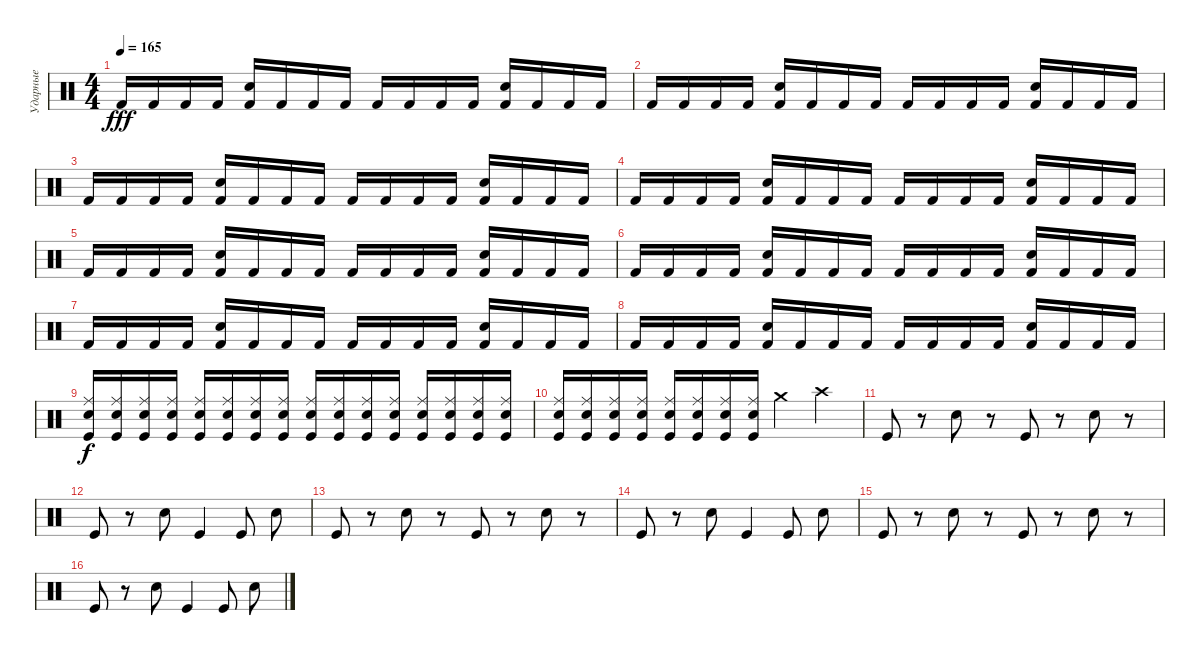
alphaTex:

\track ("Ударные" "Ударные") {instrument percussion}
\staff {score}
\articulation defaults
\ts (4 4)
\tempo 165
\clef neutral
\ks c "Kick (hit) 2".16{dy fff} "Kick (hit) 2".16 "Kick (hit) 2".16 "Kick (hit) 2".16
("Electric Snare (hit)" "Kick (hit) 2").16 "Kick (hit) 2".16 "Kick (hit) 2".16 "Kick (hit) 2".16 "Kick (hit) 2".16 "Kick (hit) 2".16 "Kick (hit) 2".16 "Kick (hit) 2".16 ("Electric Snare (hit)" "Kick (hit) 2").16 "Kick (hit) 2".16 "Kick (hit) 2".16 "Kick (hit) 2".16 |
"Kick (hit) 2".16 "Kick (hit) 2".16 "Kick (hit) 2".16 "Kick (hit) 2".16 ("Electric Snare (hit)" "Kick (hit) 2").16 "Kick (hit) 2".16 "Kick (hit) 2".16 "Kick (hit) 2".16 "Kick (hit) 2".16 "Kick (hit) 2".16 "Kick (hit) 2".16 "Kick (hit) 2".16 ("Electric Snare (hit)" "Kick (hit) 2").16 "Kick (hit) 2".16 "Kick (hit) 2".16 "Kick (hit) 2".16 |
"Kick (hit) 2".16 "Kick (hit) 2".16 "Kick (hit) 2".16 "Kick (hit) 2".16 ("Electric Snare (hit)" "Kick (hit) 2").16 "Kick (hit) 2".16 "Kick (hit) 2".16 "Kick (hit) 2".16 "Kick (hit) 2".16 "Kick (hit) 2".16 "Kick (hit) 2".16 "Kick (hit) 2".16 ("Electric Snare (hit)" "Kick (hit) 2").16 "Kick (hit) 2".16 "Kick (hit) 2".16 "Kick (hit) 2".16 |
"Kick (hit) 2".16 "Kick (hit) 2".16 "Kick (hit) 2".16 "Kick (hit) 2".16 ("Electric Snare (hit)" "Kick (hit) 2").16 "Kick (hit) 2".16 "Kick (hit) 2".16 "Kick (hit) 2".16 "Kick (hit) 2".16 "Kick (hit) 2".16 "Kick (hit) 2".16 "Kick (hit) 2".16 ("Electric Snare (hit)" "Kick (hit) 2").16 "Kick (hit) 2".16 "Kick (hit) 2".16 "Kick (hit) 2".16 |
"Kick (hit) 2".16 "Kick (hit) 2".16 "Kick (hit) 2".16 "Kick (hit) 2".16 ("Electric Snare (hit)" "Kick (hit) 2").16 "Kick (hit) 2".16 "Kick (hit) 2".16 "Kick (hit) 2".16 "Kick (hit) 2".16 "Kick (hit) 2".16 "Kick (hit) 2".16 "Kick (hit) 2".16 ("Electric Snare (hit)" "Kick (hit) 2").16 "Kick (hit) 2".16 "Kick (hit) 2".16 "Kick (hit) 2".16 |
"Kick (hit) 2".16 "Kick (hit) 2".16 "Kick (hit) 2".16 "Kick (hit) 2".16 ("Electric Snare (hit)" "Kick (hit) 2").16 "Kick (hit) 2".16 "Kick (hit) 2".16 "Kick (hit) 2".16 "Kick (hit) 2".16 "Kick (hit) 2".16 "Kick (hit) 2".16 "Kick (hit) 2".16 ("Electric Snare (hit)" "Kick (hit) 2").16 "Kick (hit) 2".16 "Kick (hit) 2".16 "Kick (hit) 2".16 |
"Kick (hit) 2".16 "Kick (hit) 2".16 "Kick (hit) 2".16 "Kick (hit) 2".16 ("Electric Snare (hit)" "Kick (hit) 2").16 "Kick (hit) 2".16 "Kick (hit) 2".16 "Kick (hit) 2".16 "Kick (hit) 2".16 "Kick (hit) 2".16 "Kick (hit) 2".16 "Kick (hit) 2".16 ("Electric Snare (hit)" "Kick (hit) 2").16 "Kick (hit) 2".16 "Kick (hit) 2".16 "Kick (hit) 2".16 |
"Kick (hit) 2".16 "Kick (hit) 2".16 "Kick (hit) 2".16 "Kick (hit) 2".16 ("Electric Snare (hit)" "Kick (hit) 2").16 "Kick (hit) 2".16 "Kick (hit) 2".16 "Kick (hit) 2".16 "Kick (hit) 2".16 "Kick (hit) 2".16 "Kick (hit) 2".16 "Kick (hit) 2".16 ("Electric Snare (hit)" "Kick (hit) 2").16 "Kick (hit) 2".16 "Kick (hit) 2".16 "Kick (hit) 2".16 |
("Kick (hit)" "Ride (middle)" "Snare (hit) 2").16{dy f} ("Kick (hit)" "Ride (middle)" "Snare (hit) 2").16 ("Kick (hit)" "Ride (middle)" "Snare (hit) 2").16 ("Kick (hit)" "Ride (middle)" "Snare (hit) 2").16 ("Kick (hit)" "Ride (middle)" "Snare (hit) 2").16 ("Kick (hit)" "Ride (middle)" "Snare (hit) 2").16 ("Kick (hit)" "Ride (middle)" "Snare (hit) 2").16 ("Kick (hit)" "Ride (middle)" "Snare (hit) 2").16 ("Kick (hit)" "Ride (middle)" "Snare (hit) 2").16 ("Kick (hit)" "Ride (middle)" "Snare (hit) 2").16 ("Kick (hit)" "Ride (middle)" "Snare (hit) 2").16 ("Kick (hit)" "Ride (middle)" "Snare (hit) 2").16 ("Kick (hit)" "Ride (middle)" "Snare (hit) 2").16 ("Kick (hit)" "Ride (middle)" "Snare (hit) 2").16 ("Kick (hit)" "Ride (middle)" "Snare (hit) 2").16 ("Kick (hit)" "Ride (middle)" "Snare (hit) 2").16 |
("Kick (hit)" "Ride (middle)" "Snare (hit) 2").16 ("Kick (hit)" "Ride (middle)" "Snare (hit) 2").16 ("Kick (hit)" "Ride (middle)" "Snare (hit) 2").16 ("Kick (hit)" "Ride (middle)" "Snare (hit) 2").16 ("Kick (hit)" "Ride (middle)" "Snare (hit) 2").16 ("Kick (hit)" "Ride (middle)" "Snare (hit) 2").16 ("Kick (hit)" "Ride (middle)" "Snare (hit) 2").16 ("Kick (hit)" "Ride (middle)" "Snare (hit) 2").16 "Crash medium (hit)".4 "Crash high (hit)".4 |
"Kick (hit)".8 r.8 "Snare (hit) 2".8 r.8 "Kick (hit)".8 r.8 "Snare (hit) 2".8 r.8 |
"Kick (hit)".8 r.8 "Snare (hit) 2".8 "Kick (hit)".4 "Kick (hit)".8 "Snare (hit) 2".8 |
"Kick (hit)".8 r.8 "Snare (hit) 2".8 r.8 "Kick (hit)".8 r.8 "Snare (hit) 2".8 r.8 |
"Kick (hit)".8 r.8 "Snare (hit) 2".8 "Kick (hit)".4 "Kick (hit)".8 "Snare (hit) 2".8 |
"Kick (hit)".8 r.8 "Snare (hit) 2".8 r.8 "Kick (hit)".8 r.8 "Snare (hit) 2".8 r.8 |
"Kick (hit)".8 r.8 "Snare (hit) 2".8 "Kick (hit)".4 "Kick (hit)".8 "Snare (hit) 2".8
